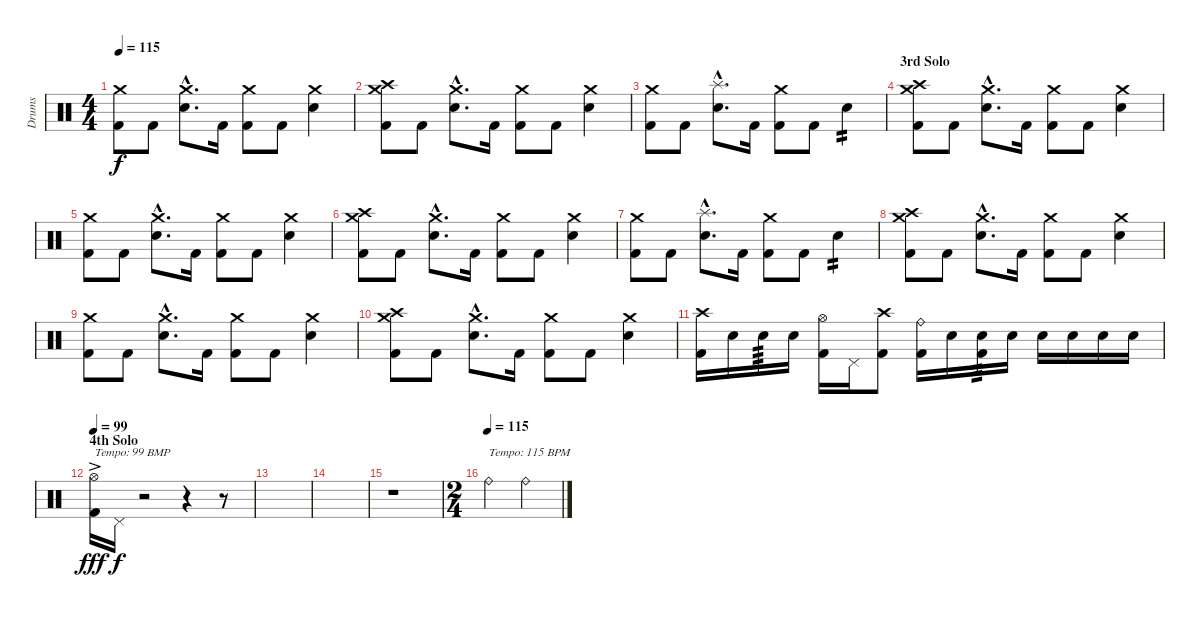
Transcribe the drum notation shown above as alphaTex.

\track ("Drums" "Drums") {instrument percussion}
\staff {score}
\articulation defaults
\ts (4 4)
\tempo 115
\clef neutral
\ks c
("Crash medium (hit)" "Kick (hit) 2").8{dy f} "Kick (hit) 2".8 ("Crash medium (hit)"{hac} "Snare (hit) 2"{hac}).8{d} "Kick (hit) 2".16 ("Crash medium (hit)" "Kick (hit) 2").8 "Kick (hit) 2".8 ("Crash medium (hit)" "Snare (hit) 2").4 |
("Crash medium (hit)" "Crash high (hit)" "Kick (hit) 2").8 "Kick (hit) 2".8 ("Crash medium (hit)"{hac} "Snare (hit) 2"{hac}).8{d} "Kick (hit) 2".16 ("Crash medium (hit)" "Kick (hit) 2").8 "Kick (hit) 2".8 ("Crash medium (hit)" "Snare (hit) 2").4 |
("Crash medium (hit)" "Kick (hit) 2").8 "Kick (hit) 2".8 ("Splash (hit)"{hac} "Snare (hit) 2"{hac}).8{d} "Kick (hit) 2".16 ("Crash medium (hit)" "Kick (hit) 2").8 "Kick (hit) 2".8 "Snare (hit) 2".4{tp 2} |
\section ("" "3rd Solo")
("Crash medium (hit)" "Crash high (hit)" "Kick (hit) 2").8 "Kick (hit) 2".8 ("Crash medium (hit)"{hac} "Snare (hit) 2"{hac}).8{d} "Kick (hit) 2".16 ("Crash medium (hit)" "Kick (hit) 2").8 "Kick (hit) 2".8 ("Crash medium (hit)" "Snare (hit) 2").4 |
("Crash medium (hit)" "Kick (hit) 2").8 "Kick (hit) 2".8 ("Crash medium (hit)"{hac} "Snare (hit) 2"{hac}).8{d} "Kick (hit) 2".16 ("Crash medium (hit)" "Kick (hit) 2").8 "Kick (hit) 2".8 ("Crash medium (hit)" "Snare (hit) 2").4 |
("Crash medium (hit)" "Crash high (hit)" "Kick (hit) 2").8 "Kick (hit) 2".8 ("Crash medium (hit)"{hac} "Snare (hit) 2"{hac}).8{d} "Kick (hit) 2".16 ("Crash medium (hit)" "Kick (hit) 2").8 "Kick (hit) 2".8 ("Crash medium (hit)" "Snare (hit) 2").4 |
("Crash medium (hit)" "Kick (hit) 2").8 "Kick (hit) 2".8 ("Splash (hit)"{hac} "Snare (hit) 2"{hac}).8{d} "Kick (hit) 2".16 ("Crash medium (hit)" "Kick (hit) 2").8 "Kick (hit) 2".8 "Snare (hit) 2".4{tp 2} |
("Crash medium (hit)" "Crash high (hit)" "Kick (hit) 2").8 "Kick (hit) 2".8 ("Crash medium (hit)"{hac} "Snare (hit) 2"{hac}).8{d} "Kick (hit) 2".16 ("Crash medium (hit)" "Kick (hit) 2").8 "Kick (hit) 2".8 ("Crash medium (hit)" "Snare (hit) 2").4 |
("Crash medium (hit)" "Kick (hit) 2").8 "Kick (hit) 2".8 ("Crash medium (hit)"{hac} "Snare (hit) 2"{hac}).8{d} "Kick (hit) 2".16 ("Crash medium (hit)" "Kick (hit) 2").8 "Kick (hit) 2".8 ("Crash medium (hit)" "Snare (hit) 2").4 |
("Crash medium (hit)" "Crash high (hit)" "Kick (hit) 2").8 "Kick (hit) 2".8 ("Crash medium (hit)"{hac} "Snare (hit) 2"{hac}).8{d} "Kick (hit) 2".16 ("Crash medium (hit)" "Kick (hit) 2").8 "Kick (hit) 2".8 ("Crash medium (hit)" "Snare (hit) 2").4 |
("Crash high (hit)" "Kick (hit) 2").16 "Snare (hit) 2".16 "Snare (hit) 2".16{tp 3} "Snare (hit) 2".16 ("Hi-Hat (open)" "Kick (hit) 2").16 "Pedal Hi-Hat (hit)".16 ("Crash high (hit)" "Kick (hit) 2").8 ("Ride (bell)" "Kick (hit) 2").16 "Snare (hit) 2".16 ("Snare (hit) 2" "Kick (hit) 2").16{tp 3} "Snare (hit) 2".16 "Snare (hit) 2".16 "Snare (hit) 2".16 "Snare (hit) 2".16 "Snare (hit) 2".16 |
\section ("" "4th Solo")
\tempo 99
("Hi-Hat (open)" "Kick (hit) 2"{ac}).16{txt "Tempo: 99 BMP" dy fff} "Pedal Hi-Hat (hit)".16{dy f} r.2 r.4 r.8 |
|
|
r.1 |
\ts (2 4)
\tempo (115)
"Ride (bell)".4{txt "Tempo: 115 BPM"} "Ride (bell)".4
